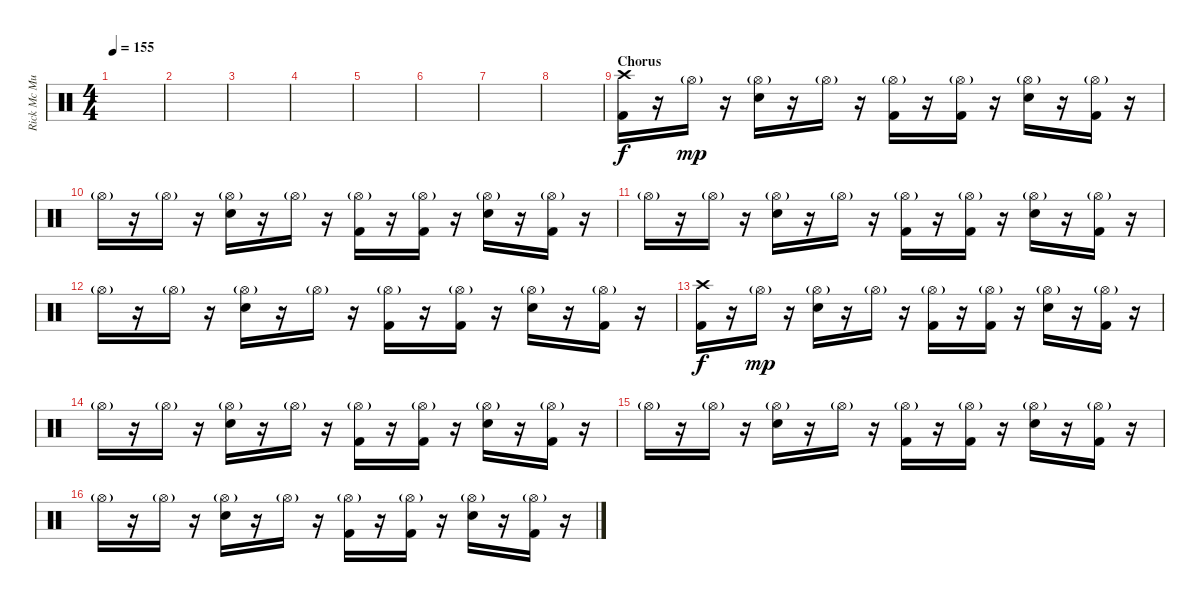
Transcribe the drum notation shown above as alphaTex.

\track ("Rick Mc Murray" "Rick Mc Mu") {instrument percussion}
\staff {score}
\articulation defaults
\ts (4 4)
\tempo 155
\clef neutral
\ks c
|
|
|
|
|
|
|
|
\section ("" "Chorus")
("Crash high (hit)" "Kick (hit) 2").16 r.16 "Hi-Hat (open)"{g}.16{dy mp} r.16 ("Hi-Hat (open)"{g} "Electric Snare (hit)").16 r.16 "Hi-Hat (open)"{g}.16 r.16 ("Hi-Hat (open)"{g} "Kick (hit) 2").16 r.16 ("Hi-Hat (open)"{g} "Kick (hit) 2").16 r.16 ("Hi-Hat (open)"{g} "Electric Snare (hit)").16 r.16 ("Hi-Hat (open)"{g} "Kick (hit) 2").16 r.16 |
"Hi-Hat (open)"{g}.16 r.16 "Hi-Hat (open)"{g}.16 r.16 ("Hi-Hat (open)"{g} "Electric Snare (hit)").16 r.16 "Hi-Hat (open)"{g}.16 r.16 ("Hi-Hat (open)"{g} "Kick (hit) 2").16 r.16 ("Hi-Hat (open)"{g} "Kick (hit) 2").16 r.16 ("Hi-Hat (open)"{g} "Electric Snare (hit)").16 r.16 ("Hi-Hat (open)"{g} "Kick (hit) 2").16 r.16 |
"Hi-Hat (open)"{g}.16 r.16 "Hi-Hat (open)"{g}.16 r.16 ("Hi-Hat (open)"{g} "Electric Snare (hit)").16 r.16 "Hi-Hat (open)"{g}.16 r.16 ("Hi-Hat (open)"{g} "Kick (hit) 2").16 r.16 ("Hi-Hat (open)"{g} "Kick (hit) 2").16 r.16 ("Hi-Hat (open)"{g} "Electric Snare (hit)").16 r.16 ("Hi-Hat (open)"{g} "Kick (hit) 2").16 r.16 |
"Hi-Hat (open)"{g}.16 r.16 "Hi-Hat (open)"{g}.16 r.16 ("Hi-Hat (open)"{g} "Electric Snare (hit)").16 r.16 "Hi-Hat (open)"{g}.16 r.16 ("Hi-Hat (open)"{g} "Kick (hit) 2").16 r.16 ("Hi-Hat (open)"{g} "Kick (hit) 2").16 r.16 ("Hi-Hat (open)"{g} "Electric Snare (hit)").16 r.16 ("Hi-Hat (open)"{g} "Kick (hit) 2").16 r.16 |
("Crash high (hit)" "Kick (hit) 2").16{dy f} r.16 "Hi-Hat (open)"{g}.16{dy mp} r.16 ("Hi-Hat (open)"{g} "Electric Snare (hit)").16 r.16 "Hi-Hat (open)"{g}.16 r.16 ("Hi-Hat (open)"{g} "Kick (hit) 2").16 r.16 ("Hi-Hat (open)"{g} "Kick (hit) 2").16 r.16 ("Hi-Hat (open)"{g} "Electric Snare (hit)").16 r.16 ("Hi-Hat (open)"{g} "Kick (hit) 2").16 r.16 |
"Hi-Hat (open)"{g}.16 r.16 "Hi-Hat (open)"{g}.16 r.16 ("Hi-Hat (open)"{g} "Electric Snare (hit)").16 r.16 "Hi-Hat (open)"{g}.16 r.16 ("Hi-Hat (open)"{g} "Kick (hit) 2").16 r.16 ("Hi-Hat (open)"{g} "Kick (hit) 2").16 r.16 ("Hi-Hat (open)"{g} "Electric Snare (hit)").16 r.16 ("Hi-Hat (open)"{g} "Kick (hit) 2").16 r.16 |
"Hi-Hat (open)"{g}.16 r.16 "Hi-Hat (open)"{g}.16 r.16 ("Hi-Hat (open)"{g} "Electric Snare (hit)").16 r.16 "Hi-Hat (open)"{g}.16 r.16 ("Hi-Hat (open)"{g} "Kick (hit) 2").16 r.16 ("Hi-Hat (open)"{g} "Kick (hit) 2").16 r.16 ("Hi-Hat (open)"{g} "Electric Snare (hit)").16 r.16 ("Hi-Hat (open)"{g} "Kick (hit) 2").16 r.16 |
"Hi-Hat (open)"{g}.16 r.16 "Hi-Hat (open)"{g}.16 r.16 ("Hi-Hat (open)"{g} "Electric Snare (hit)").16 r.16 "Hi-Hat (open)"{g}.16 r.16 ("Hi-Hat (open)"{g} "Kick (hit) 2").16 r.16 ("Hi-Hat (open)"{g} "Kick (hit) 2").16 r.16 ("Hi-Hat (open)"{g} "Electric Snare (hit)").16 r.16 ("Hi-Hat (open)"{g} "Kick (hit) 2").16 r.16
